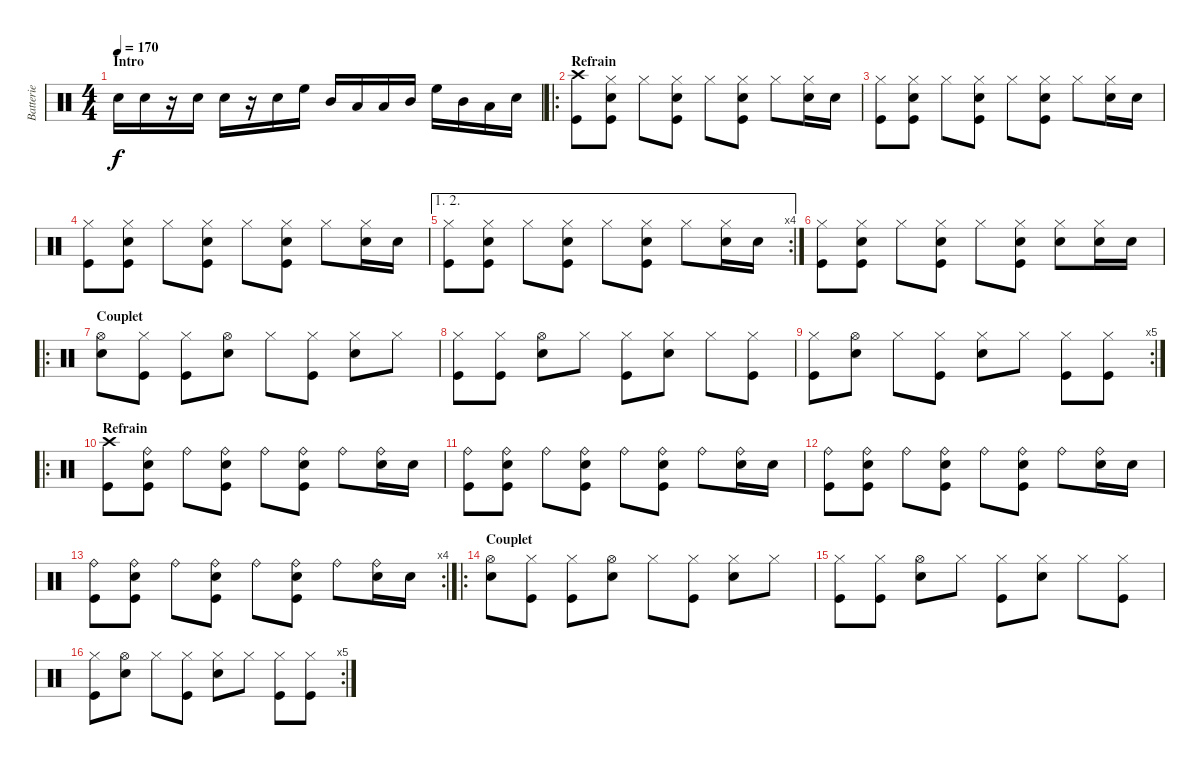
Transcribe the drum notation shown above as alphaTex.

\track ("Batterie" "Batterie") {instrument percussion}
\staff {score}
\articulation defaults
\ts (4 4)
\section ("" "Intro")
\tempo 170
\clef neutral
\ks c "Electric Snare (hit)".16{dy f} "Electric Snare (hit)".16
r.16 "Electric Snare (hit)".16 "Electric Snare (hit)".16 r.16 "Electric Snare (hit)".16 "High Floor Tom (hit)".16 "Mid Tom (hit)".16 "Low Floor Tom (hit)".16 "Low Floor Tom (hit)".16 "Mid Tom (hit)".16 "High Floor Tom (hit)".16 "Mid Tom (hit)".16 "Low Floor Tom (hit)".16 "Electric Snare (hit)".16 |
\ro
\section ("" "Refrain")
("Crash high (hit)" "Kick (hit)").8 ("Hi-Hat (closed)" "Electric Snare (hit)" "Kick (hit)").8 "Hi-Hat (closed)".8 ("Hi-Hat (closed)" "Electric Snare (hit)" "Kick (hit)").8 "Hi-Hat (closed)".8 ("Hi-Hat (closed)" "Electric Snare (hit)" "Kick (hit)").8 "Hi-Hat (closed)".8 ("Hi-Hat (closed)" "Electric Snare (hit)").16 "Electric Snare (hit)".16 |
("Hi-Hat (closed)" "Kick (hit)").8 ("Hi-Hat (closed)" "Electric Snare (hit)" "Kick (hit)").8 "Hi-Hat (closed)".8 ("Hi-Hat (closed)" "Electric Snare (hit)" "Kick (hit)").8 "Hi-Hat (closed)".8 ("Hi-Hat (closed)" "Electric Snare (hit)" "Kick (hit)").8 "Hi-Hat (closed)".8 ("Hi-Hat (closed)" "Electric Snare (hit)").16 "Electric Snare (hit)".16 |
("Hi-Hat (closed)" "Kick (hit)").8 ("Hi-Hat (closed)" "Electric Snare (hit)" "Kick (hit)").8 "Hi-Hat (closed)".8 ("Hi-Hat (closed)" "Electric Snare (hit)" "Kick (hit)").8 "Hi-Hat (closed)".8 ("Hi-Hat (closed)" "Electric Snare (hit)" "Kick (hit)").8 "Hi-Hat (closed)".8 ("Hi-Hat (closed)" "Electric Snare (hit)").16 "Electric Snare (hit)".16 |
\ae (1 2)
\rc 4
("Hi-Hat (closed)" "Kick (hit)").8 ("Hi-Hat (closed)" "Electric Snare (hit)" "Kick (hit)").8 "Hi-Hat (closed)".8 ("Hi-Hat (closed)" "Electric Snare (hit)" "Kick (hit)").8 "Hi-Hat (closed)".8 ("Hi-Hat (closed)" "Electric Snare (hit)" "Kick (hit)").8 "Hi-Hat (closed)".8 ("Hi-Hat (closed)" "Electric Snare (hit)").16 "Electric Snare (hit)".16 |
("Hi-Hat (closed)" "Kick (hit)").8 ("Hi-Hat (closed)" "Electric Snare (hit)" "Kick (hit)").8 "Hi-Hat (closed)".8 ("Hi-Hat (closed)" "Electric Snare (hit)" "Kick (hit)").8 "Hi-Hat (closed)".8 ("Hi-Hat (closed)" "Electric Snare (hit)" "Kick (hit)").8 ("Hi-Hat (closed)" "Electric Snare (hit)").8 ("Hi-Hat (closed)" "Electric Snare (hit)").16 "Electric Snare (hit)".16 |
\ro
\section ("" "Couplet")
("Hi-Hat (open)" "Electric Snare (hit)").8 ("Hi-Hat (closed)" "Kick (hit)").8 ("Hi-Hat (closed)" "Kick (hit)").8 ("Hi-Hat (open)" "Electric Snare (hit)").8 "Hi-Hat (closed)".8 ("Hi-Hat (closed)" "Kick (hit)").8 ("Hi-Hat (closed)" "Electric Snare (hit)").8 "Hi-Hat (closed)".8 |
("Hi-Hat (closed)" "Kick (hit)").8 ("Hi-Hat (closed)" "Kick (hit)").8 ("Hi-Hat (open)" "Electric Snare (hit)").8 "Hi-Hat (closed)".8 ("Hi-Hat (closed)" "Kick (hit)").8 ("Hi-Hat (closed)" "Electric Snare (hit)").8 "Hi-Hat (closed)".8 ("Hi-Hat (closed)" "Kick (hit)").8 |
\rc 5
("Hi-Hat (closed)" "Kick (hit)").8 ("Hi-Hat (open)" "Electric Snare (hit)").8 "Hi-Hat (closed)".8 ("Hi-Hat (closed)" "Kick (hit)").8 ("Hi-Hat (closed)" "Electric Snare (hit)").8 "Hi-Hat (closed)".8 ("Hi-Hat (closed)" "Kick (hit)").8 ("Hi-Hat (closed)" "Kick (hit)").8 |
\ro
\section ("" "Refrain")
("Crash high (hit)" "Kick (hit)").8 ("Ride (bell)" "Electric Snare (hit)" "Kick (hit)").8 "Ride (bell)".8 ("Ride (bell)" "Electric Snare (hit)" "Kick (hit)").8 "Ride (bell)".8 ("Ride (bell)" "Electric Snare (hit)" "Kick (hit)").8 "Ride (bell)".8 ("Ride (bell)" "Electric Snare (hit)").16 "Electric Snare (hit)".16 |
("Ride (bell)" "Kick (hit)").8 ("Ride (bell)" "Electric Snare (hit)" "Kick (hit)").8 "Ride (bell)".8 ("Ride (bell)" "Electric Snare (hit)" "Kick (hit)").8 "Ride (bell)".8 ("Ride (bell)" "Electric Snare (hit)" "Kick (hit)").8 "Ride (bell)".8 ("Ride (bell)" "Electric Snare (hit)").16 "Electric Snare (hit)".16 |
("Ride (bell)" "Kick (hit)").8 ("Ride (bell)" "Electric Snare (hit)" "Kick (hit)").8 "Ride (bell)".8 ("Ride (bell)" "Electric Snare (hit)" "Kick (hit)").8 "Ride (bell)".8 ("Ride (bell)" "Electric Snare (hit)" "Kick (hit)").8 "Ride (bell)".8 ("Ride (bell)" "Electric Snare (hit)").16 "Electric Snare (hit)".16 |
\rc 4
("Ride (bell)" "Kick (hit)").8 ("Ride (bell)" "Electric Snare (hit)" "Kick (hit)").8 "Ride (bell)".8 ("Ride (bell)" "Electric Snare (hit)" "Kick (hit)").8 "Ride (bell)".8 ("Ride (bell)" "Electric Snare (hit)" "Kick (hit)").8 "Ride (bell)".8 ("Ride (bell)" "Electric Snare (hit)").16 "Electric Snare (hit)".16 |
\ro
\section ("" "Couplet")
("Hi-Hat (open)" "Electric Snare (hit)").8 ("Hi-Hat (closed)" "Kick (hit)").8 ("Hi-Hat (closed)" "Kick (hit)").8 ("Hi-Hat (open)" "Electric Snare (hit)").8 "Hi-Hat (closed)".8 ("Hi-Hat (closed)" "Kick (hit)").8 ("Hi-Hat (closed)" "Electric Snare (hit)").8 "Hi-Hat (closed)".8 |
("Hi-Hat (closed)" "Kick (hit)").8 ("Hi-Hat (closed)" "Kick (hit)").8 ("Hi-Hat (open)" "Electric Snare (hit)").8 "Hi-Hat (closed)".8 ("Hi-Hat (closed)" "Kick (hit)").8 ("Hi-Hat (closed)" "Electric Snare (hit)").8 "Hi-Hat (closed)".8 ("Hi-Hat (closed)" "Kick (hit)").8 |
\rc 5
("Hi-Hat (closed)" "Kick (hit)").8 ("Hi-Hat (open)" "Electric Snare (hit)").8 "Hi-Hat (closed)".8 ("Hi-Hat (closed)" "Kick (hit)").8 ("Hi-Hat (closed)" "Electric Snare (hit)").8 "Hi-Hat (closed)".8 ("Hi-Hat (closed)" "Kick (hit)").8 ("Hi-Hat (closed)" "Kick (hit)").8
